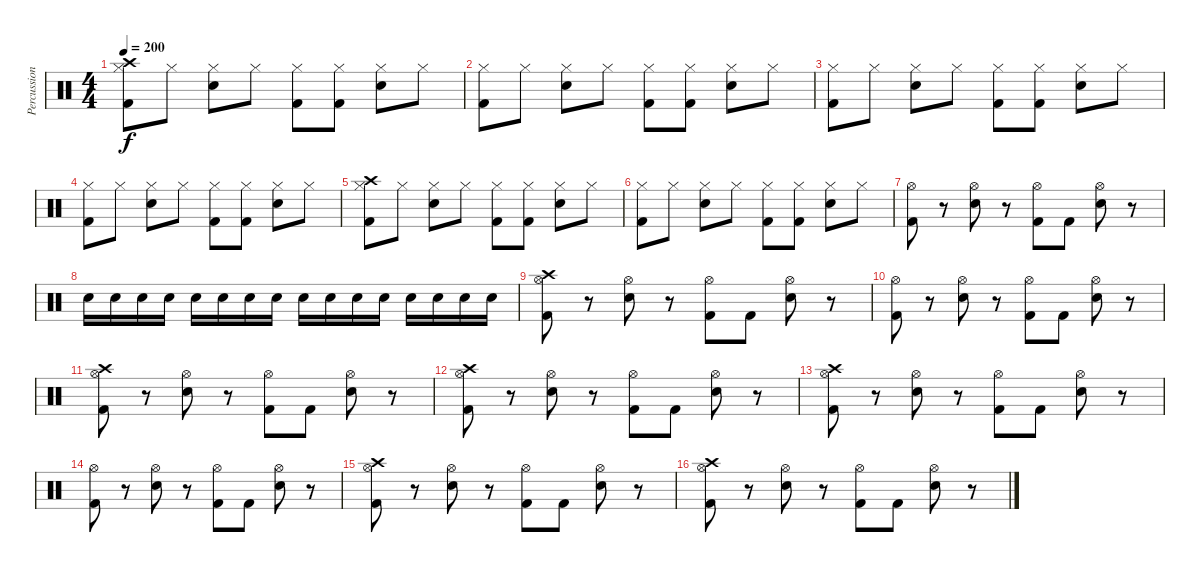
\track ("Percussioni" "Percussion") {instrument percussion}
\staff {score}
\articulation defaults
\ts (4 4)
\tempo 200
\clef neutral
\ks c
("Crash high (hit)" "Kick (hit) 2" "Hi-Hat (closed)").8{dy f} "Hi-Hat (closed)".8 ("Snare (hit) 2" "Hi-Hat (closed)").8 "Hi-Hat (closed)".8 ("Kick (hit) 2" "Hi-Hat (closed)").8 ("Kick (hit) 2" "Hi-Hat (closed)").8 ("Snare (hit) 2" "Hi-Hat (closed)").8 "Hi-Hat (closed)".8 |
("Kick (hit) 2" "Hi-Hat (closed)").8 "Hi-Hat (closed)".8 ("Snare (hit) 2" "Hi-Hat (closed)").8 "Hi-Hat (closed)".8 ("Kick (hit) 2" "Hi-Hat (closed)").8 ("Kick (hit) 2" "Hi-Hat (closed)").8 ("Snare (hit) 2" "Hi-Hat (closed)").8 "Hi-Hat (closed)".8 |
("Kick (hit) 2" "Hi-Hat (closed)").8 "Hi-Hat (closed)".8 ("Snare (hit) 2" "Hi-Hat (closed)").8 "Hi-Hat (closed)".8 ("Kick (hit) 2" "Hi-Hat (closed)").8 ("Kick (hit) 2" "Hi-Hat (closed)").8 ("Snare (hit) 2" "Hi-Hat (closed)").8 "Hi-Hat (closed)".8 |
("Kick (hit) 2" "Hi-Hat (closed)").8 "Hi-Hat (closed)".8 ("Snare (hit) 2" "Hi-Hat (closed)").8 "Hi-Hat (closed)".8 ("Kick (hit) 2" "Hi-Hat (closed)").8 ("Kick (hit) 2" "Hi-Hat (closed)").8 ("Snare (hit) 2" "Hi-Hat (closed)").8 "Hi-Hat (closed)".8 |
("Crash high (hit)" "Kick (hit) 2" "Hi-Hat (closed)").8 "Hi-Hat (closed)".8 ("Snare (hit) 2" "Hi-Hat (closed)").8 "Hi-Hat (closed)".8 ("Kick (hit) 2" "Hi-Hat (closed)").8 ("Kick (hit) 2" "Hi-Hat (closed)").8 ("Snare (hit) 2" "Hi-Hat (closed)").8 "Hi-Hat (closed)".8 |
("Kick (hit) 2" "Hi-Hat (closed)").8 "Hi-Hat (closed)".8 ("Snare (hit) 2" "Hi-Hat (closed)").8 "Hi-Hat (closed)".8 ("Kick (hit) 2" "Hi-Hat (closed)").8 ("Kick (hit) 2" "Hi-Hat (closed)").8 ("Snare (hit) 2" "Hi-Hat (closed)").8 "Hi-Hat (closed)".8 |
("Kick (hit) 2" "Hi-Hat (open)").8 r.8 ("Snare (hit) 2" "Hi-Hat (open)").8 r.8 ("Kick (hit) 2" "Hi-Hat (open)").8 "Kick (hit) 2".8 ("Snare (hit) 2" "Hi-Hat (open)").8 r.8 |
"Snare (hit) 2".16 "Snare (hit) 2".16 "Snare (hit) 2".16 "Snare (hit) 2".16 "Snare (hit) 2".16 "Snare (hit) 2".16 "Snare (hit) 2".16 "Snare (hit) 2".16 "Snare (hit) 2".16 "Snare (hit) 2".16 "Snare (hit) 2".16 "Snare (hit) 2".16 "Snare (hit) 2".16 "Snare (hit) 2".16 "Snare (hit) 2".16 "Snare (hit) 2".16 |
("Crash high (hit)" "Kick (hit) 2" "Hi-Hat (open)").8 r.8 ("Snare (hit) 2" "Hi-Hat (open)").8 r.8 ("Kick (hit) 2" "Hi-Hat (open)").8 "Kick (hit) 2".8 ("Snare (hit) 2" "Hi-Hat (open)").8 r.8 |
("Kick (hit) 2" "Hi-Hat (open)").8 r.8 ("Snare (hit) 2" "Hi-Hat (open)").8 r.8 ("Kick (hit) 2" "Hi-Hat (open)").8 "Kick (hit) 2".8 ("Snare (hit) 2" "Hi-Hat (open)").8 r.8 |
("Crash high (hit)" "Kick (hit) 2" "Hi-Hat (open)").8 r.8 ("Snare (hit) 2" "Hi-Hat (open)").8 r.8 ("Kick (hit) 2" "Hi-Hat (open)").8 "Kick (hit) 2".8 ("Snare (hit) 2" "Hi-Hat (open)").8 r.8 |
("Crash high (hit)" "Kick (hit) 2" "Hi-Hat (open)").8 r.8 ("Snare (hit) 2" "Hi-Hat (open)").8 r.8 ("Kick (hit) 2" "Hi-Hat (open)").8 "Kick (hit) 2".8 ("Snare (hit) 2" "Hi-Hat (open)").8 r.8 |
("Crash high (hit)" "Kick (hit) 2" "Hi-Hat (open)").8 r.8 ("Snare (hit) 2" "Hi-Hat (open)").8 r.8 ("Kick (hit) 2" "Hi-Hat (open)").8 "Kick (hit) 2".8 ("Snare (hit) 2" "Hi-Hat (open)").8 r.8 |
("Kick (hit) 2" "Hi-Hat (open)").8 r.8 ("Snare (hit) 2" "Hi-Hat (open)").8 r.8 ("Kick (hit) 2" "Hi-Hat (open)").8 "Kick (hit) 2".8 ("Snare (hit) 2" "Hi-Hat (open)").8 r.8 |
("Crash high (hit)" "Kick (hit) 2" "Hi-Hat (open)").8 r.8 ("Snare (hit) 2" "Hi-Hat (open)").8 r.8 ("Kick (hit) 2" "Hi-Hat (open)").8 "Kick (hit) 2".8 ("Snare (hit) 2" "Hi-Hat (open)").8 r.8 |
("Crash high (hit)" "Kick (hit) 2" "Hi-Hat (open)").8 r.8 ("Snare (hit) 2" "Hi-Hat (open)").8 r.8 ("Kick (hit) 2" "Hi-Hat (open)").8 "Kick (hit) 2".8 ("Snare (hit) 2" "Hi-Hat (open)").8 r.8
